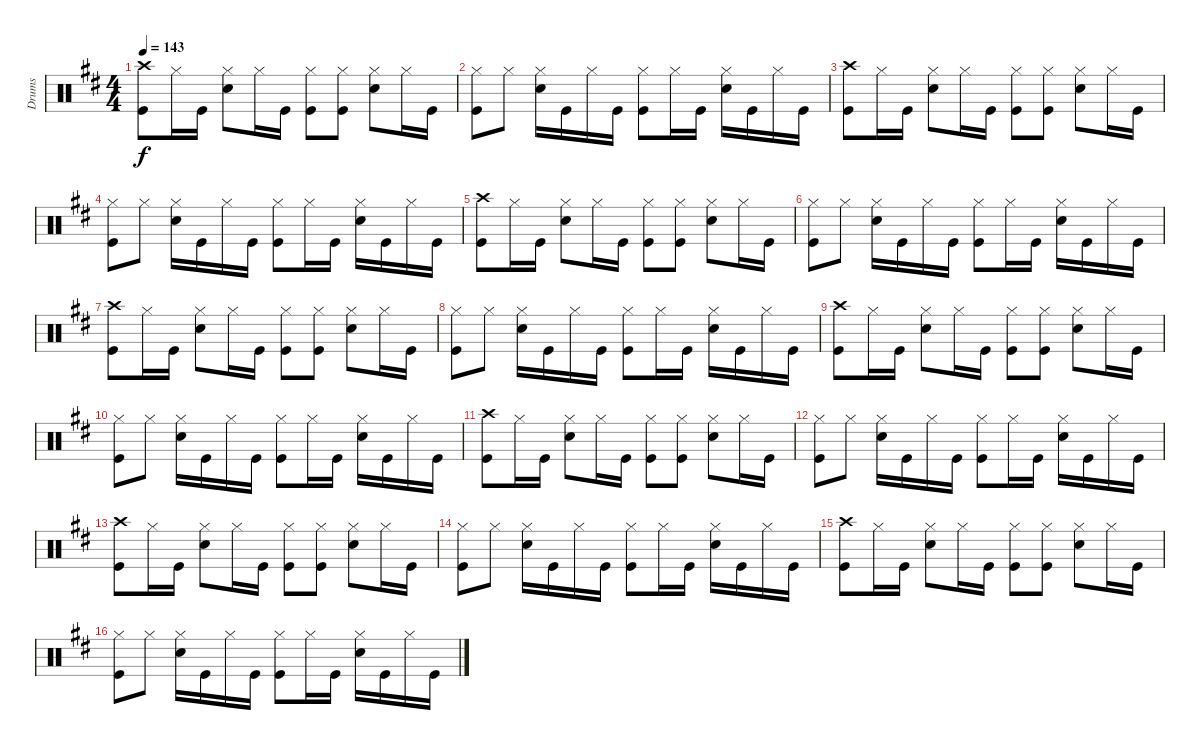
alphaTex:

\track ("Drums" "Drums") {instrument percussion}
\staff {score}
\articulation defaults
\ts (4 4)
\tempo 143
\clef neutral
\ks bminor
("Crash high (hit)" "Kick (hit)").8{dy f} "Hi-Hat (closed)".16 "Kick (hit)".16 ("Hi-Hat (closed)" "Snare (hit) 2").8 "Hi-Hat (closed)".16 "Kick (hit)".16 ("Hi-Hat (closed)" "Kick (hit)").8 ("Hi-Hat (closed)" "Kick (hit)").8 ("Hi-Hat (closed)" "Snare (hit) 2").8 "Hi-Hat (closed)".16 "Kick (hit)".16 |
("Hi-Hat (closed)" "Kick (hit)").8 "Hi-Hat (closed)".8 ("Hi-Hat (closed)" "Snare (hit) 2").16 "Kick (hit)".16 "Hi-Hat (closed)".16 "Kick (hit)".16 ("Hi-Hat (closed)" "Kick (hit)").8 "Hi-Hat (closed)".16 "Kick (hit)".16 ("Hi-Hat (closed)" "Snare (hit) 2").16 "Kick (hit)".16 "Hi-Hat (closed)".16 "Kick (hit)".16 |
("Crash high (hit)" "Kick (hit)").8 "Hi-Hat (closed)".16 "Kick (hit)".16 ("Hi-Hat (closed)" "Snare (hit) 2").8 "Hi-Hat (closed)".16 "Kick (hit)".16 ("Hi-Hat (closed)" "Kick (hit)").8 ("Hi-Hat (closed)" "Kick (hit)").8 ("Hi-Hat (closed)" "Snare (hit) 2").8 "Hi-Hat (closed)".16 "Kick (hit)".16 |
("Hi-Hat (closed)" "Kick (hit)").8 "Hi-Hat (closed)".8 ("Hi-Hat (closed)" "Snare (hit) 2").16 "Kick (hit)".16 "Hi-Hat (closed)".16 "Kick (hit)".16 ("Hi-Hat (closed)" "Kick (hit)").8 "Hi-Hat (closed)".16 "Kick (hit)".16 ("Hi-Hat (closed)" "Snare (hit) 2").16 "Kick (hit)".16 "Hi-Hat (closed)".16 "Kick (hit)".16 |
("Crash high (hit)" "Kick (hit)").8 "Hi-Hat (closed)".16 "Kick (hit)".16 ("Hi-Hat (closed)" "Snare (hit) 2").8 "Hi-Hat (closed)".16 "Kick (hit)".16 ("Hi-Hat (closed)" "Kick (hit)").8 ("Hi-Hat (closed)" "Kick (hit)").8 ("Hi-Hat (closed)" "Snare (hit) 2").8 "Hi-Hat (closed)".16 "Kick (hit)".16 |
("Hi-Hat (closed)" "Kick (hit)").8 "Hi-Hat (closed)".8 ("Hi-Hat (closed)" "Snare (hit) 2").16 "Kick (hit)".16 "Hi-Hat (closed)".16 "Kick (hit)".16 ("Hi-Hat (closed)" "Kick (hit)").8 "Hi-Hat (closed)".16 "Kick (hit)".16 ("Hi-Hat (closed)" "Snare (hit) 2").16 "Kick (hit)".16 "Hi-Hat (closed)".16 "Kick (hit)".16 |
("Crash high (hit)" "Kick (hit)").8 "Hi-Hat (closed)".16 "Kick (hit)".16 ("Hi-Hat (closed)" "Snare (hit) 2").8 "Hi-Hat (closed)".16 "Kick (hit)".16 ("Hi-Hat (closed)" "Kick (hit)").8 ("Hi-Hat (closed)" "Kick (hit)").8 ("Hi-Hat (closed)" "Snare (hit) 2").8 "Hi-Hat (closed)".16 "Kick (hit)".16 |
("Hi-Hat (closed)" "Kick (hit)").8 "Hi-Hat (closed)".8 ("Hi-Hat (closed)" "Snare (hit) 2").16 "Kick (hit)".16 "Hi-Hat (closed)".16 "Kick (hit)".16 ("Hi-Hat (closed)" "Kick (hit)").8 "Hi-Hat (closed)".16 "Kick (hit)".16 ("Hi-Hat (closed)" "Snare (hit) 2").16 "Kick (hit)".16 "Hi-Hat (closed)".16 "Kick (hit)".16 |
("Crash high (hit)" "Kick (hit)").8 "Hi-Hat (closed)".16 "Kick (hit)".16 ("Hi-Hat (closed)" "Snare (hit) 2").8 "Hi-Hat (closed)".16 "Kick (hit)".16 ("Hi-Hat (closed)" "Kick (hit)").8 ("Hi-Hat (closed)" "Kick (hit)").8 ("Hi-Hat (closed)" "Snare (hit) 2").8 "Hi-Hat (closed)".16 "Kick (hit)".16 |
("Hi-Hat (closed)" "Kick (hit)").8 "Hi-Hat (closed)".8 ("Hi-Hat (closed)" "Snare (hit) 2").16 "Kick (hit)".16 "Hi-Hat (closed)".16 "Kick (hit)".16 ("Hi-Hat (closed)" "Kick (hit)").8 "Hi-Hat (closed)".16 "Kick (hit)".16 ("Hi-Hat (closed)" "Snare (hit) 2").16 "Kick (hit)".16 "Hi-Hat (closed)".16 "Kick (hit)".16 |
("Crash high (hit)" "Kick (hit)").8 "Hi-Hat (closed)".16 "Kick (hit)".16 ("Hi-Hat (closed)" "Snare (hit) 2").8 "Hi-Hat (closed)".16 "Kick (hit)".16 ("Hi-Hat (closed)" "Kick (hit)").8 ("Hi-Hat (closed)" "Kick (hit)").8 ("Hi-Hat (closed)" "Snare (hit) 2").8 "Hi-Hat (closed)".16 "Kick (hit)".16 |
("Hi-Hat (closed)" "Kick (hit)").8 "Hi-Hat (closed)".8 ("Hi-Hat (closed)" "Snare (hit) 2").16 "Kick (hit)".16 "Hi-Hat (closed)".16 "Kick (hit)".16 ("Hi-Hat (closed)" "Kick (hit)").8 "Hi-Hat (closed)".16 "Kick (hit)".16 ("Hi-Hat (closed)" "Snare (hit) 2").16 "Kick (hit)".16 "Hi-Hat (closed)".16 "Kick (hit)".16 |
("Crash high (hit)" "Kick (hit)").8 "Hi-Hat (closed)".16 "Kick (hit)".16 ("Hi-Hat (closed)" "Snare (hit) 2").8 "Hi-Hat (closed)".16 "Kick (hit)".16 ("Hi-Hat (closed)" "Kick (hit)").8 ("Hi-Hat (closed)" "Kick (hit)").8 ("Hi-Hat (closed)" "Snare (hit) 2").8 "Hi-Hat (closed)".16 "Kick (hit)".16 |
("Hi-Hat (closed)" "Kick (hit)").8 "Hi-Hat (closed)".8 ("Hi-Hat (closed)" "Snare (hit) 2").16 "Kick (hit)".16 "Hi-Hat (closed)".16 "Kick (hit)".16 ("Hi-Hat (closed)" "Kick (hit)").8 "Hi-Hat (closed)".16 "Kick (hit)".16 ("Hi-Hat (closed)" "Snare (hit) 2").16 "Kick (hit)".16 "Hi-Hat (closed)".16 "Kick (hit)".16 |
("Crash high (hit)" "Kick (hit)").8 "Hi-Hat (closed)".16 "Kick (hit)".16 ("Hi-Hat (closed)" "Snare (hit) 2").8 "Hi-Hat (closed)".16 "Kick (hit)".16 ("Hi-Hat (closed)" "Kick (hit)").8 ("Hi-Hat (closed)" "Kick (hit)").8 ("Hi-Hat (closed)" "Snare (hit) 2").8 "Hi-Hat (closed)".16 "Kick (hit)".16 |
("Hi-Hat (closed)" "Kick (hit)").8 "Hi-Hat (closed)".8 ("Hi-Hat (closed)" "Snare (hit) 2").16 "Kick (hit)".16 "Hi-Hat (closed)".16 "Kick (hit)".16 ("Hi-Hat (closed)" "Kick (hit)").8 "Hi-Hat (closed)".16 "Kick (hit)".16 ("Hi-Hat (closed)" "Snare (hit) 2").16 "Kick (hit)".16 "Hi-Hat (closed)".16 "Kick (hit)".16
